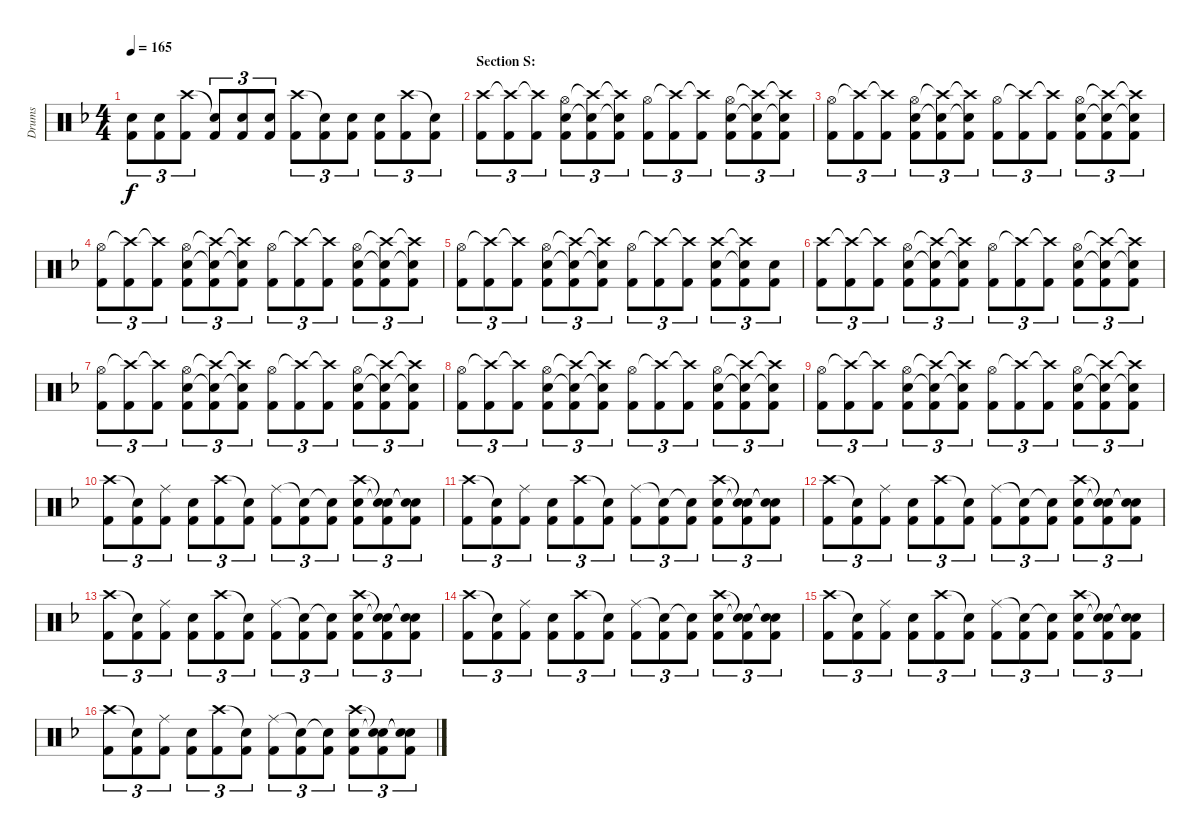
\track ("Drums" "Drums") {instrument percussion}
\staff {score}
\articulation defaults
\ts (4 4)
\tempo 165
\clef neutral
\ks f
("Snare (hit) 2" "Kick (hit) 2").8{tu (3 2) dy f} ("Snare (hit) 2" "Kick (hit) 2").8{tu (3 2)} ("Crash high (hit)" "Kick (hit) 2").8{tu (3 2)} ("Snare (hit)"{t} "Kick (hit) 2").8{tu (3 2)} ("Snare (hit) 2" "Kick (hit) 2").8{tu (3 2)} ("Snare (hit) 2" "Kick (hit) 2").8{tu (3 2)} ("Crash high (hit)" "Kick (hit) 2").8{tu (3 2)} ("Snare (hit)"{t} "Kick (hit) 2").8{tu (3 2)} ("Snare (hit) 2" "Kick (hit) 2").8{tu (3 2)} ("Snare (hit) 2" "Kick (hit) 2").8{tu (3 2)} ("Crash high (hit)" "Kick (hit) 2").8{tu (3 2)} ("Snare (hit)"{t} "Kick (hit) 2").8{tu (3 2)} |
\section ("" "Section S:")
("Crash high (hit)" "Kick (hit) 2").8{tu (3 2)} ("Crash high (hit)"{t} "Kick (hit) 2").8{tu (3 2)} ("Crash high (hit)"{t} "Kick (hit) 2").8{tu (3 2)} ("Hi-Hat (open)" "Snare (hit) 2" "Kick (hit) 2").8{tu (3 2)} ("Crash high (hit)"{t} "Snare (hit)"{t} "Kick (hit) 2").8{tu (3 2)} ("Crash high (hit)"{t} "Snare (hit)"{t} "Kick (hit) 2").8{tu (3 2)} ("Hi-Hat (open)" "Kick (hit) 2").8{tu (3 2)} ("Crash high (hit)"{t} "Kick (hit) 2").8{tu (3 2)} ("Crash high (hit)"{t} "Kick (hit) 2").8{tu (3 2)} ("Hi-Hat (open)" "Snare (hit) 2" "Kick (hit) 2").8{tu (3 2)} ("Crash high (hit)"{t} "Snare (hit)"{t} "Kick (hit) 2").8{tu (3 2)} ("Crash high (hit)"{t} "Snare (hit)"{t} "Kick (hit) 2").8{tu (3 2)} |
("Hi-Hat (open)" "Kick (hit) 2").8{tu (3 2)} ("Crash high (hit)"{t} "Kick (hit) 2").8{tu (3 2)} ("Crash high (hit)"{t} "Kick (hit) 2").8{tu (3 2)} ("Hi-Hat (open)" "Snare (hit) 2" "Kick (hit) 2").8{tu (3 2)} ("Crash high (hit)"{t} "Snare (hit)"{t} "Kick (hit) 2").8{tu (3 2)} ("Crash high (hit)"{t} "Snare (hit)"{t} "Kick (hit) 2").8{tu (3 2)} ("Hi-Hat (open)" "Kick (hit) 2").8{tu (3 2)} ("Crash high (hit)"{t} "Kick (hit) 2").8{tu (3 2)} ("Crash high (hit)"{t} "Kick (hit) 2").8{tu (3 2)} ("Hi-Hat (open)" "Snare (hit) 2" "Kick (hit) 2").8{tu (3 2)} ("Crash high (hit)"{t} "Snare (hit)"{t} "Kick (hit) 2").8{tu (3 2)} ("Crash high (hit)"{t} "Snare (hit)"{t} "Kick (hit) 2").8{tu (3 2)} |
("Hi-Hat (open)" "Kick (hit) 2").8{tu (3 2)} ("Crash high (hit)"{t} "Kick (hit) 2").8{tu (3 2)} ("Crash high (hit)"{t} "Kick (hit) 2").8{tu (3 2)} ("Hi-Hat (open)" "Snare (hit) 2" "Kick (hit) 2").8{tu (3 2)} ("Crash high (hit)"{t} "Snare (hit)"{t} "Kick (hit) 2").8{tu (3 2)} ("Crash high (hit)"{t} "Snare (hit)"{t} "Kick (hit) 2").8{tu (3 2)} ("Hi-Hat (open)" "Kick (hit) 2").8{tu (3 2)} ("Crash high (hit)"{t} "Kick (hit) 2").8{tu (3 2)} ("Crash high (hit)"{t} "Kick (hit) 2").8{tu (3 2)} ("Hi-Hat (open)" "Snare (hit) 2" "Kick (hit) 2").8{tu (3 2)} ("Crash high (hit)"{t} "Snare (hit)"{t} "Kick (hit) 2").8{tu (3 2)} ("Crash high (hit)"{t} "Snare (hit)"{t} "Kick (hit) 2").8{tu (3 2)} |
("Hi-Hat (open)" "Kick (hit) 2").8{tu (3 2)} ("Crash high (hit)"{t} "Kick (hit) 2").8{tu (3 2)} ("Crash high (hit)"{t} "Kick (hit) 2").8{tu (3 2)} ("Hi-Hat (open)" "Snare (hit) 2" "Kick (hit) 2").8{tu (3 2)} ("Crash high (hit)"{t} "Snare (hit)"{t} "Kick (hit) 2").8{tu (3 2)} ("Crash high (hit)"{t} "Snare (hit)"{t} "Kick (hit) 2").8{tu (3 2)} ("Hi-Hat (open)" "Kick (hit) 2").8{tu (3 2)} ("Crash high (hit)"{t} "Kick (hit) 2").8{tu (3 2)} ("Crash high (hit)"{t} "Kick (hit) 2").8{tu (3 2)} ("Crash high (hit)" "Snare (hit) 2" "Kick (hit) 2").8{tu (3 2)} ("Crash high (hit)"{t} "Snare (hit)"{t} "Kick (hit) 2").8{tu (3 2)} ("Snare (hit) 2" "Kick (hit) 2").8{tu (3 2)} |
("Crash high (hit)" "Kick (hit) 2").8{tu (3 2)} ("Crash high (hit)"{t} "Kick (hit) 2").8{tu (3 2)} ("Crash high (hit)"{t} "Kick (hit) 2").8{tu (3 2)} ("Hi-Hat (open)" "Snare (hit) 2" "Kick (hit) 2").8{tu (3 2)} ("Crash high (hit)"{t} "Snare (hit)"{t} "Kick (hit) 2").8{tu (3 2)} ("Crash high (hit)"{t} "Snare (hit)"{t} "Kick (hit) 2").8{tu (3 2)} ("Hi-Hat (open)" "Kick (hit) 2").8{tu (3 2)} ("Crash high (hit)"{t} "Kick (hit) 2").8{tu (3 2)} ("Crash high (hit)"{t} "Kick (hit) 2").8{tu (3 2)} ("Hi-Hat (open)" "Snare (hit) 2" "Kick (hit) 2").8{tu (3 2)} ("Crash high (hit)"{t} "Snare (hit)"{t} "Kick (hit) 2").8{tu (3 2)} ("Crash high (hit)"{t} "Snare (hit)"{t} "Kick (hit) 2").8{tu (3 2)} |
("Hi-Hat (open)" "Kick (hit) 2").8{tu (3 2)} ("Crash high (hit)"{t} "Kick (hit) 2").8{tu (3 2)} ("Crash high (hit)"{t} "Kick (hit) 2").8{tu (3 2)} ("Hi-Hat (open)" "Snare (hit) 2" "Kick (hit) 2").8{tu (3 2)} ("Crash high (hit)"{t} "Snare (hit)"{t} "Kick (hit) 2").8{tu (3 2)} ("Crash high (hit)"{t} "Snare (hit)"{t} "Kick (hit) 2").8{tu (3 2)} ("Hi-Hat (open)" "Kick (hit) 2").8{tu (3 2)} ("Crash high (hit)"{t} "Kick (hit) 2").8{tu (3 2)} ("Crash high (hit)"{t} "Kick (hit) 2").8{tu (3 2)} ("Hi-Hat (open)" "Snare (hit) 2" "Kick (hit) 2").8{tu (3 2)} ("Crash high (hit)"{t} "Snare (hit)"{t} "Kick (hit) 2").8{tu (3 2)} ("Crash high (hit)"{t} "Snare (hit)"{t} "Kick (hit) 2").8{tu (3 2)} |
("Hi-Hat (open)" "Kick (hit) 2").8{tu (3 2)} ("Crash high (hit)"{t} "Kick (hit) 2").8{tu (3 2)} ("Crash high (hit)"{t} "Kick (hit) 2").8{tu (3 2)} ("Hi-Hat (open)" "Snare (hit) 2" "Kick (hit) 2").8{tu (3 2)} ("Crash high (hit)"{t} "Snare (hit)"{t} "Kick (hit) 2").8{tu (3 2)} ("Crash high (hit)"{t} "Snare (hit)"{t} "Kick (hit) 2").8{tu (3 2)} ("Hi-Hat (open)" "Kick (hit) 2").8{tu (3 2)} ("Crash high (hit)"{t} "Kick (hit) 2").8{tu (3 2)} ("Crash high (hit)"{t} "Kick (hit) 2").8{tu (3 2)} ("Hi-Hat (open)" "Snare (hit) 2" "Kick (hit) 2").8{tu (3 2)} ("Crash high (hit)"{t} "Snare (hit)"{t} "Kick (hit) 2").8{tu (3 2)} ("Crash high (hit)"{t} "Snare (hit)"{t} "Kick (hit) 2").8{tu (3 2)} |
("Hi-Hat (open)" "Kick (hit) 2").8{tu (3 2)} ("Crash high (hit)"{t} "Kick (hit) 2").8{tu (3 2)} ("Crash high (hit)"{t} "Kick (hit) 2").8{tu (3 2)} ("Hi-Hat (open)" "Snare (hit) 2" "Kick (hit) 2").8{tu (3 2)} ("Crash high (hit)"{t} "Snare (hit)"{t} "Kick (hit) 2").8{tu (3 2)} ("Crash high (hit)"{t} "Snare (hit)"{t} "Kick (hit) 2").8{tu (3 2)} ("Hi-Hat (open)" "Kick (hit) 2").8{tu (3 2)} ("Crash high (hit)"{t} "Kick (hit) 2").8{tu (3 2)} ("Crash high (hit)"{t} "Kick (hit) 2").8{tu (3 2)} ("Hi-Hat (open)" "Snare (hit) 2" "Kick (hit) 2").8{tu (3 2)} ("Crash high (hit)"{t} "Snare (hit)"{t} "Kick (hit) 2").8{tu (3 2)} ("Crash high (hit)"{t} "Snare (hit)"{t} "Kick (hit) 2").8{tu (3 2)} |
("Crash high (hit)" "Kick (hit) 2").8{tu (3 2)} ("Snare (hit)"{t} "Kick (hit) 2").8{tu (3 2)} ("Ride (middle)" "Kick (hit) 2").8{tu (3 2)} ("Snare (hit) 2" "Kick (hit) 2").8{tu (3 2)} ("Crash high (hit)" "Kick (hit) 2").8{tu (3 2)} ("Snare (hit)"{t} "Kick (hit) 2").8{tu (3 2)} ("Ride (middle)" "Kick (hit) 2").8{tu (3 2)} ("Snare (hit)"{t} "Kick (hit) 2").8{tu (3 2)} ("Snare (hit)"{t} "Kick (hit) 2").8{tu (3 2)} ("Crash high (hit)" "Snare (hit) 2" "Kick (hit) 2").8{tu (3 2)} ("Snare (hit)"{t} "Snare (hit)"{t} "Kick (hit) 2").8{tu (3 2)} ("Snare (hit)"{t} "Snare (hit)"{t} "Kick (hit) 2").8{tu (3 2)} |
("Crash high (hit)" "Kick (hit) 2").8{tu (3 2)} ("Snare (hit)"{t} "Kick (hit) 2").8{tu (3 2)} ("Ride (middle)" "Kick (hit) 2").8{tu (3 2)} ("Snare (hit) 2" "Kick (hit) 2").8{tu (3 2)} ("Crash high (hit)" "Kick (hit) 2").8{tu (3 2)} ("Snare (hit)"{t} "Kick (hit) 2").8{tu (3 2)} ("Ride (middle)" "Kick (hit) 2").8{tu (3 2)} ("Snare (hit)"{t} "Kick (hit) 2").8{tu (3 2)} ("Snare (hit)"{t} "Kick (hit) 2").8{tu (3 2)} ("Crash high (hit)" "Snare (hit) 2" "Kick (hit) 2").8{tu (3 2)} ("Snare (hit)"{t} "Snare (hit)"{t} "Kick (hit) 2").8{tu (3 2)} ("Snare (hit)"{t} "Snare (hit)"{t} "Kick (hit) 2").8{tu (3 2)} |
("Crash high (hit)" "Kick (hit) 2").8{tu (3 2)} ("Snare (hit)"{t} "Kick (hit) 2").8{tu (3 2)} ("Ride (middle)" "Kick (hit) 2").8{tu (3 2)} ("Snare (hit) 2" "Kick (hit) 2").8{tu (3 2)} ("Crash high (hit)" "Kick (hit) 2").8{tu (3 2)} ("Snare (hit)"{t} "Kick (hit) 2").8{tu (3 2)} ("Ride (middle)" "Kick (hit) 2").8{tu (3 2)} ("Snare (hit)"{t} "Kick (hit) 2").8{tu (3 2)} ("Snare (hit)"{t} "Kick (hit) 2").8{tu (3 2)} ("Crash high (hit)" "Snare (hit) 2" "Kick (hit) 2").8{tu (3 2)} ("Snare (hit)"{t} "Snare (hit)"{t} "Kick (hit) 2").8{tu (3 2)} ("Snare (hit)"{t} "Snare (hit)"{t} "Kick (hit) 2").8{tu (3 2)} |
("Crash high (hit)" "Kick (hit) 2").8{tu (3 2)} ("Snare (hit)"{t} "Kick (hit) 2").8{tu (3 2)} ("Ride (middle)" "Kick (hit) 2").8{tu (3 2)} ("Snare (hit) 2" "Kick (hit) 2").8{tu (3 2)} ("Crash high (hit)" "Kick (hit) 2").8{tu (3 2)} ("Snare (hit)"{t} "Kick (hit) 2").8{tu (3 2)} ("Ride (middle)" "Kick (hit) 2").8{tu (3 2)} ("Snare (hit)"{t} "Kick (hit) 2").8{tu (3 2)} ("Snare (hit)"{t} "Kick (hit) 2").8{tu (3 2)} ("Crash high (hit)" "Snare (hit) 2" "Kick (hit) 2").8{tu (3 2)} ("Snare (hit)"{t} "Snare (hit)"{t} "Kick (hit) 2").8{tu (3 2)} ("Snare (hit)"{t} "Snare (hit)"{t} "Kick (hit) 2").8{tu (3 2)} |
("Crash high (hit)" "Kick (hit) 2").8{tu (3 2)} ("Snare (hit)"{t} "Kick (hit) 2").8{tu (3 2)} ("Ride (middle)" "Kick (hit) 2").8{tu (3 2)} ("Snare (hit) 2" "Kick (hit) 2").8{tu (3 2)} ("Crash high (hit)" "Kick (hit) 2").8{tu (3 2)} ("Snare (hit)"{t} "Kick (hit) 2").8{tu (3 2)} ("Ride (middle)" "Kick (hit) 2").8{tu (3 2)} ("Snare (hit)"{t} "Kick (hit) 2").8{tu (3 2)} ("Snare (hit)"{t} "Kick (hit) 2").8{tu (3 2)} ("Crash high (hit)" "Snare (hit) 2" "Kick (hit) 2").8{tu (3 2)} ("Snare (hit)"{t} "Snare (hit)"{t} "Kick (hit) 2").8{tu (3 2)} ("Snare (hit)"{t} "Snare (hit)"{t} "Kick (hit) 2").8{tu (3 2)} |
("Crash high (hit)" "Kick (hit) 2").8{tu (3 2)} ("Snare (hit)"{t} "Kick (hit) 2").8{tu (3 2)} ("Ride (middle)" "Kick (hit) 2").8{tu (3 2)} ("Snare (hit) 2" "Kick (hit) 2").8{tu (3 2)} ("Crash high (hit)" "Kick (hit) 2").8{tu (3 2)} ("Snare (hit)"{t} "Kick (hit) 2").8{tu (3 2)} ("Ride (middle)" "Kick (hit) 2").8{tu (3 2)} ("Snare (hit)"{t} "Kick (hit) 2").8{tu (3 2)} ("Snare (hit)"{t} "Kick (hit) 2").8{tu (3 2)} ("Crash high (hit)" "Snare (hit) 2" "Kick (hit) 2").8{tu (3 2)} ("Snare (hit)"{t} "Snare (hit)"{t} "Kick (hit) 2").8{tu (3 2)} ("Snare (hit)"{t} "Snare (hit)"{t} "Kick (hit) 2").8{tu (3 2)} |
("Crash high (hit)" "Kick (hit) 2").8{tu (3 2)} ("Snare (hit)"{t} "Kick (hit) 2").8{tu (3 2)} ("Ride (middle)" "Kick (hit) 2").8{tu (3 2)} ("Snare (hit) 2" "Kick (hit) 2").8{tu (3 2)} ("Crash high (hit)" "Kick (hit) 2").8{tu (3 2)} ("Snare (hit)"{t} "Kick (hit) 2").8{tu (3 2)} ("Ride (middle)" "Kick (hit) 2").8{tu (3 2)} ("Snare (hit)"{t} "Kick (hit) 2").8{tu (3 2)} ("Snare (hit)"{t} "Kick (hit) 2").8{tu (3 2)} ("Crash high (hit)" "Snare (hit) 2" "Kick (hit) 2").8{tu (3 2)} ("Snare (hit)"{t} "Snare (hit)"{t} "Kick (hit) 2").8{tu (3 2)} ("Snare (hit)"{t} "Snare (hit)"{t} "Kick (hit) 2").8{tu (3 2)}
